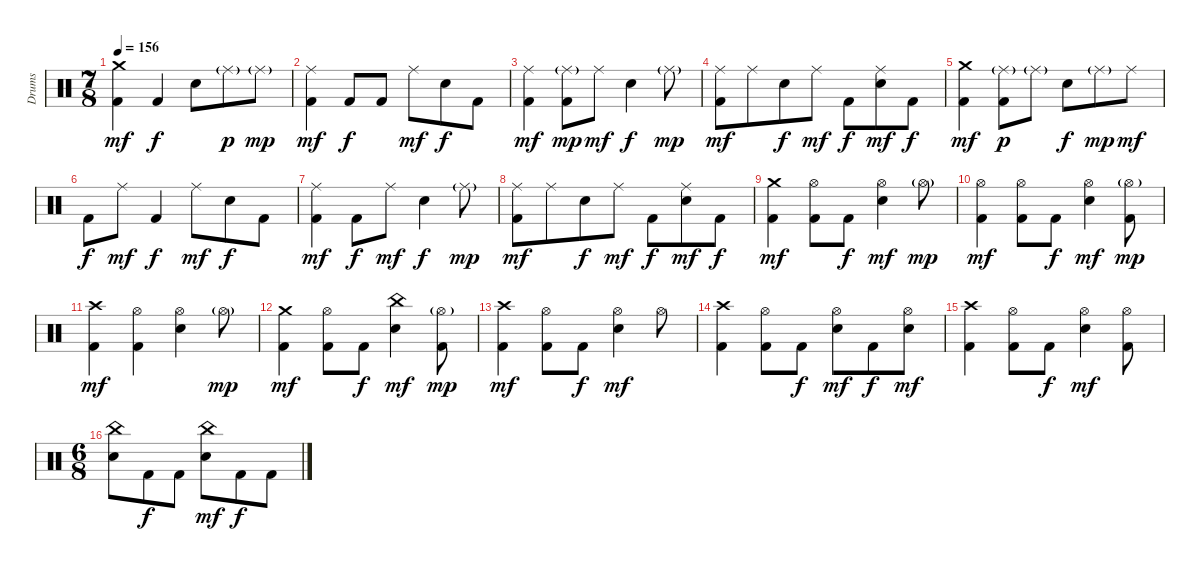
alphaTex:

\track ("Drums" "Drums") {instrument percussion}
\staff {score}
\articulation defaults
\ts (7 8)
\tempo 156
\clef neutral
\ks c
("Crash medium (hit)" "Kick (hit) 2").4{dy mf} "Kick (hit) 2".4{dy f} "Electric Snare (hit)".8 "Ride (middle)"{g}.8{dy p} "Ride (middle)"{g}.8{dy mp} |
("Ride (middle)" "Kick (hit) 2").4{dy mf} "Kick (hit) 2".8{dy f} "Kick (hit) 2".8 "Ride (middle)".8{dy mf} "Electric Snare (hit)".8{dy f} "Kick (hit) 2".8 |
("Ride (middle)" "Kick (hit) 2").4{dy mf} ("Ride (middle)"{g} "Kick (hit) 2").8{dy mp} "Ride (middle)".8{dy mf} "Electric Snare (hit)".4{dy f} "Ride (middle)"{g}.8{dy mp} |
("Ride (middle)" "Kick (hit) 2").8{dy mf} "Ride (middle)".8 "Electric Snare (hit)".8{dy f} "Ride (middle)".8{dy mf} "Kick (hit) 2".8{dy f} ("Ride (middle)" "Electric Snare (hit)").8{dy mf} "Kick (hit) 2".8{dy f} |
("Crash medium (hit)" "Kick (hit) 2").4{dy mf} ("Ride (middle)"{g} "Kick (hit) 2").8{dy p} "Ride (middle)"{g}.8 "Electric Snare (hit)".8{dy f} "Ride (middle)"{g}.8{dy mp} "Ride (middle)".8{dy mf} |
"Kick (hit) 2".8{dy f} "Ride (middle)".8{dy mf} "Kick (hit) 2".4{dy f} "Ride (middle)".8{dy mf} "Electric Snare (hit)".8{dy f} "Kick (hit) 2".8 |
("Ride (middle)" "Kick (hit) 2").4{dy mf} "Kick (hit) 2".8{dy f} "Ride (middle)".8{dy mf} "Electric Snare (hit)".4{dy f} "Ride (middle)"{g}.8{dy mp} |
("Ride (middle)" "Kick (hit) 2").8{dy mf} "Ride (middle)".8 "Electric Snare (hit)".8{dy f} "Ride (middle)".8{dy mf} "Kick (hit) 2".8{dy f} ("Ride (middle)" "Electric Snare (hit)").8{dy mf} "Kick (hit) 2".8{dy f} |
("Crash medium (hit)" "Kick (hit) 2").4{dy mf} ("Hi-Hat (open)" "Kick (hit) 2").8 "Kick (hit) 2".8{dy f} ("Hi-Hat (open)" "Electric Snare (hit)").4{dy mf} "Hi-Hat (open)"{g}.8{dy mp} |
("Hi-Hat (open)" "Kick (hit) 2").4{dy mf} ("Hi-Hat (open)" "Kick (hit) 2").8 "Kick (hit) 2".8{dy f} ("Hi-Hat (open)" "Electric Snare (hit)").4{dy mf} ("Hi-Hat (open)"{g} "Kick (hit) 2").8{dy mp} |
("Crash high (hit)" "Kick (hit) 2").4{dy mf} ("Hi-Hat (open)" "Kick (hit) 2").4 ("Hi-Hat (open)" "Electric Snare (hit)").4 "Hi-Hat (open)"{g}.8{dy mp} |
("Crash medium (hit)" "Kick (hit) 2").4{dy mf} ("Hi-Hat (open)" "Kick (hit) 2").8 "Kick (hit) 2".8{dy f} ("China (hit)" "Electric Snare (hit)").4{dy mf} ("Hi-Hat (open)"{g} "Kick (hit) 2").8{dy mp} |
("Crash high (hit)" "Kick (hit) 2").4{dy mf} ("Hi-Hat (open)" "Kick (hit) 2").8 "Kick (hit) 2".8{dy f} ("Hi-Hat (open)" "Electric Snare (hit)").4{dy mf} "Hi-Hat (open)".8 |
("Crash high (hit)" "Kick (hit) 2").4 ("Hi-Hat (open)" "Kick (hit) 2").8 "Kick (hit) 2".8{dy f} ("Hi-Hat (open)" "Electric Snare (hit)").8{dy mf} "Kick (hit) 2".8{dy f} ("Hi-Hat (open)" "Electric Snare (hit)").8{dy mf} |
("Crash high (hit)" "Kick (hit) 2").4 ("Hi-Hat (open)" "Kick (hit) 2").8 "Kick (hit) 2".8{dy f} ("Hi-Hat (open)" "Electric Snare (hit)").4{dy mf} ("Hi-Hat (open)" "Kick (hit) 2").8 |
\ts (6 8)
("China (hit)" "Electric Snare (hit)").8 "Kick (hit) 2".8{dy f} "Kick (hit) 2".8 ("China (hit)" "Electric Snare (hit)").8{dy mf} "Kick (hit) 2".8{dy f} "Kick (hit) 2".8
